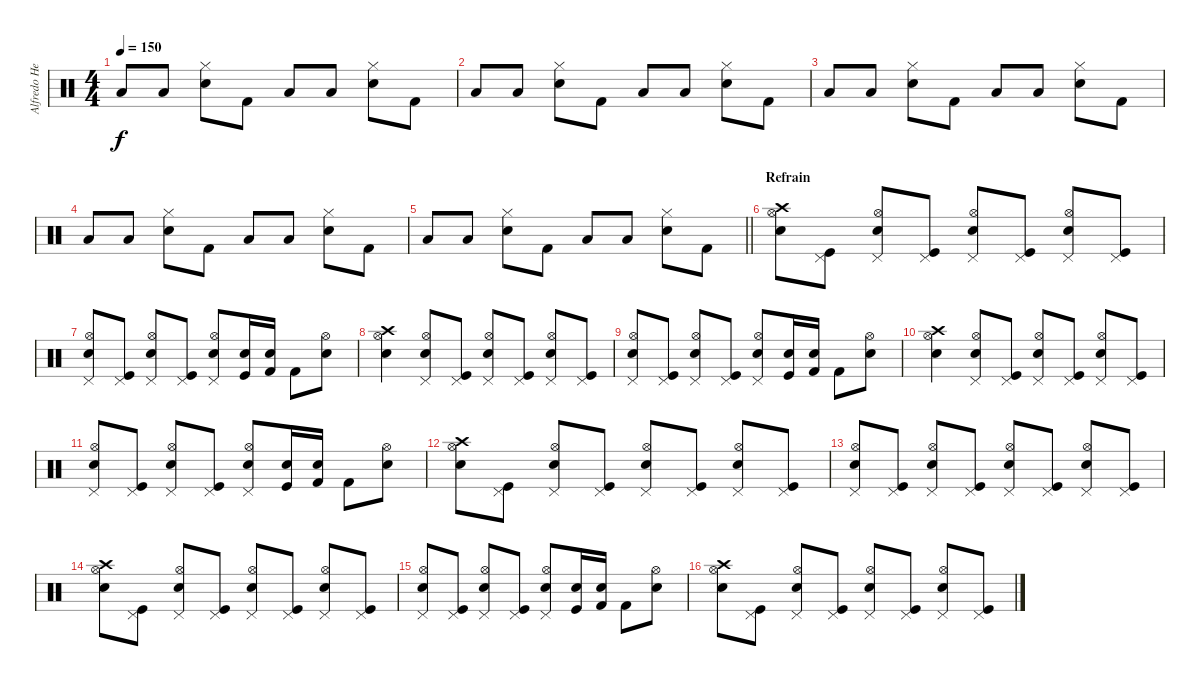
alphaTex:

\track ("Alfredo Hernandez" "Alfredo He") {instrument percussion}
\staff {score}
\articulation defaults
\ts (4 4)
\tempo 150
\clef neutral
\ks c "Low Tom (hit)".8{dy f} "Low Tom (hit)".8
("Snare (hit) 2" "Hi-Hat (closed)").8 "Kick (hit) 2".8 "Low Tom (hit)".8 "Low Tom (hit)".8 ("Snare (hit) 2" "Hi-Hat (closed)").8 "Kick (hit) 2".8 |
"Low Tom (hit)".8 "Low Tom (hit)".8 ("Snare (hit) 2" "Hi-Hat (closed)").8 "Kick (hit) 2".8 "Low Tom (hit)".8 "Low Tom (hit)".8 ("Snare (hit) 2" "Hi-Hat (closed)").8 "Kick (hit) 2".8 |
"Low Tom (hit)".8 "Low Tom (hit)".8 ("Snare (hit) 2" "Hi-Hat (closed)").8 "Kick (hit) 2".8 "Low Tom (hit)".8 "Low Tom (hit)".8 ("Snare (hit) 2" "Hi-Hat (closed)").8 "Kick (hit) 2".8 |
"Low Tom (hit)".8 "Low Tom (hit)".8 ("Snare (hit) 2" "Hi-Hat (closed)").8 "Kick (hit) 2".8 "Low Tom (hit)".8 "Low Tom (hit)".8 ("Snare (hit) 2" "Hi-Hat (closed)").8 "Kick (hit) 2".8 |
\barLineRight lightlight "Low Tom (hit)".8 "Low Tom (hit)".8
("Snare (hit) 2" "Hi-Hat (closed)").8 "Kick (hit) 2".8 "Low Tom (hit)".8 "Low Tom (hit)".8 ("Snare (hit) 2" "Hi-Hat (closed)").8 "Kick (hit) 2".8 |
\section ("" "Refrain")
("Electric Snare (hit)" "Crash high (hit)" "Hi-Hat (open)").8 ("Kick (hit)" "Pedal Hi-Hat (hit)").8 ("Electric Snare (hit)" "Pedal Hi-Hat (hit)" "Hi-Hat (open)").8 ("Kick (hit)" "Pedal Hi-Hat (hit)").8 ("Electric Snare (hit)" "Pedal Hi-Hat (hit)" "Hi-Hat (open)").8 ("Kick (hit)" "Pedal Hi-Hat (hit)").8 ("Electric Snare (hit)" "Pedal Hi-Hat (hit)" "Hi-Hat (open)").8 ("Kick (hit)" "Pedal Hi-Hat (hit)").8 |
("Electric Snare (hit)" "Pedal Hi-Hat (hit)" "Hi-Hat (open)").8 ("Kick (hit)" "Pedal Hi-Hat (hit)").8 ("Electric Snare (hit)" "Pedal Hi-Hat (hit)" "Hi-Hat (open)").8 ("Kick (hit)" "Pedal Hi-Hat (hit)").8 ("Electric Snare (hit)" "Pedal Hi-Hat (hit)" "Hi-Hat (open)").8 ("Kick (hit)" "Electric Snare (hit)").16 ("Kick (hit) 2" "Electric Snare (hit)").16 "Kick (hit) 2".8 ("Electric Snare (hit)" "Hi-Hat (open)").8 |
("Electric Snare (hit)" "Crash high (hit)" "Hi-Hat (open)").4 ("Electric Snare (hit)" "Pedal Hi-Hat (hit)" "Hi-Hat (open)").8 ("Kick (hit)" "Pedal Hi-Hat (hit)").8 ("Electric Snare (hit)" "Pedal Hi-Hat (hit)" "Hi-Hat (open)").8 ("Kick (hit)" "Pedal Hi-Hat (hit)").8 ("Electric Snare (hit)" "Pedal Hi-Hat (hit)" "Hi-Hat (open)").8 ("Kick (hit)" "Pedal Hi-Hat (hit)").8 |
("Electric Snare (hit)" "Pedal Hi-Hat (hit)" "Hi-Hat (open)").8 ("Kick (hit)" "Pedal Hi-Hat (hit)").8 ("Electric Snare (hit)" "Pedal Hi-Hat (hit)" "Hi-Hat (open)").8 ("Kick (hit)" "Pedal Hi-Hat (hit)").8 ("Electric Snare (hit)" "Pedal Hi-Hat (hit)" "Hi-Hat (open)").8 ("Kick (hit)" "Electric Snare (hit)").16 ("Kick (hit) 2" "Electric Snare (hit)").16 "Kick (hit) 2".8 ("Electric Snare (hit)" "Hi-Hat (open)").8 |
("Electric Snare (hit)" "Crash high (hit)" "Hi-Hat (open)").4 ("Electric Snare (hit)" "Pedal Hi-Hat (hit)" "Hi-Hat (open)").8 ("Kick (hit)" "Pedal Hi-Hat (hit)").8 ("Electric Snare (hit)" "Pedal Hi-Hat (hit)" "Hi-Hat (open)").8 ("Kick (hit)" "Pedal Hi-Hat (hit)").8 ("Electric Snare (hit)" "Pedal Hi-Hat (hit)" "Hi-Hat (open)").8 ("Kick (hit)" "Pedal Hi-Hat (hit)").8 |
("Electric Snare (hit)" "Pedal Hi-Hat (hit)" "Hi-Hat (open)").8 ("Kick (hit)" "Pedal Hi-Hat (hit)").8 ("Electric Snare (hit)" "Pedal Hi-Hat (hit)" "Hi-Hat (open)").8 ("Kick (hit)" "Pedal Hi-Hat (hit)").8 ("Electric Snare (hit)" "Pedal Hi-Hat (hit)" "Hi-Hat (open)").8 ("Kick (hit)" "Electric Snare (hit)").16 ("Kick (hit) 2" "Electric Snare (hit)").16 "Kick (hit) 2".8 ("Electric Snare (hit)" "Hi-Hat (open)").8 |
("Electric Snare (hit)" "Crash high (hit)" "Hi-Hat (open)").8 ("Kick (hit)" "Pedal Hi-Hat (hit)").8 ("Electric Snare (hit)" "Pedal Hi-Hat (hit)" "Hi-Hat (open)").8 ("Kick (hit)" "Pedal Hi-Hat (hit)").8 ("Electric Snare (hit)" "Pedal Hi-Hat (hit)" "Hi-Hat (open)").8 ("Kick (hit)" "Pedal Hi-Hat (hit)").8 ("Electric Snare (hit)" "Pedal Hi-Hat (hit)" "Hi-Hat (open)").8 ("Kick (hit)" "Pedal Hi-Hat (hit)").8 |
("Electric Snare (hit)" "Pedal Hi-Hat (hit)" "Hi-Hat (open)").8 ("Kick (hit)" "Pedal Hi-Hat (hit)").8 ("Electric Snare (hit)" "Pedal Hi-Hat (hit)" "Hi-Hat (open)").8 ("Kick (hit)" "Pedal Hi-Hat (hit)").8 ("Electric Snare (hit)" "Pedal Hi-Hat (hit)" "Hi-Hat (open)").8 ("Kick (hit)" "Pedal Hi-Hat (hit)").8 ("Electric Snare (hit)" "Pedal Hi-Hat (hit)" "Hi-Hat (open)").8 ("Kick (hit)" "Pedal Hi-Hat (hit)").8 |
("Electric Snare (hit)" "Crash high (hit)" "Hi-Hat (open)").8 ("Kick (hit)" "Pedal Hi-Hat (hit)").8 ("Electric Snare (hit)" "Pedal Hi-Hat (hit)" "Hi-Hat (open)").8 ("Kick (hit)" "Pedal Hi-Hat (hit)").8 ("Electric Snare (hit)" "Pedal Hi-Hat (hit)" "Hi-Hat (open)").8 ("Kick (hit)" "Pedal Hi-Hat (hit)").8 ("Electric Snare (hit)" "Pedal Hi-Hat (hit)" "Hi-Hat (open)").8 ("Kick (hit)" "Pedal Hi-Hat (hit)").8 |
("Electric Snare (hit)" "Pedal Hi-Hat (hit)" "Hi-Hat (open)").8 ("Kick (hit)" "Pedal Hi-Hat (hit)").8 ("Electric Snare (hit)" "Pedal Hi-Hat (hit)" "Hi-Hat (open)").8 ("Kick (hit)" "Pedal Hi-Hat (hit)").8 ("Electric Snare (hit)" "Pedal Hi-Hat (hit)" "Hi-Hat (open)").8 ("Kick (hit)" "Electric Snare (hit)").16 ("Kick (hit) 2" "Electric Snare (hit)").16 "Kick (hit) 2".8 ("Electric Snare (hit)" "Hi-Hat (open)").8 |
("Electric Snare (hit)" "Crash high (hit)" "Hi-Hat (open)").8 ("Kick (hit)" "Pedal Hi-Hat (hit)").8 ("Electric Snare (hit)" "Pedal Hi-Hat (hit)" "Hi-Hat (open)").8 ("Kick (hit)" "Pedal Hi-Hat (hit)").8 ("Electric Snare (hit)" "Pedal Hi-Hat (hit)" "Hi-Hat (open)").8 ("Kick (hit)" "Pedal Hi-Hat (hit)").8 ("Electric Snare (hit)" "Pedal Hi-Hat (hit)" "Hi-Hat (open)").8 ("Kick (hit)" "Pedal Hi-Hat (hit)").8
